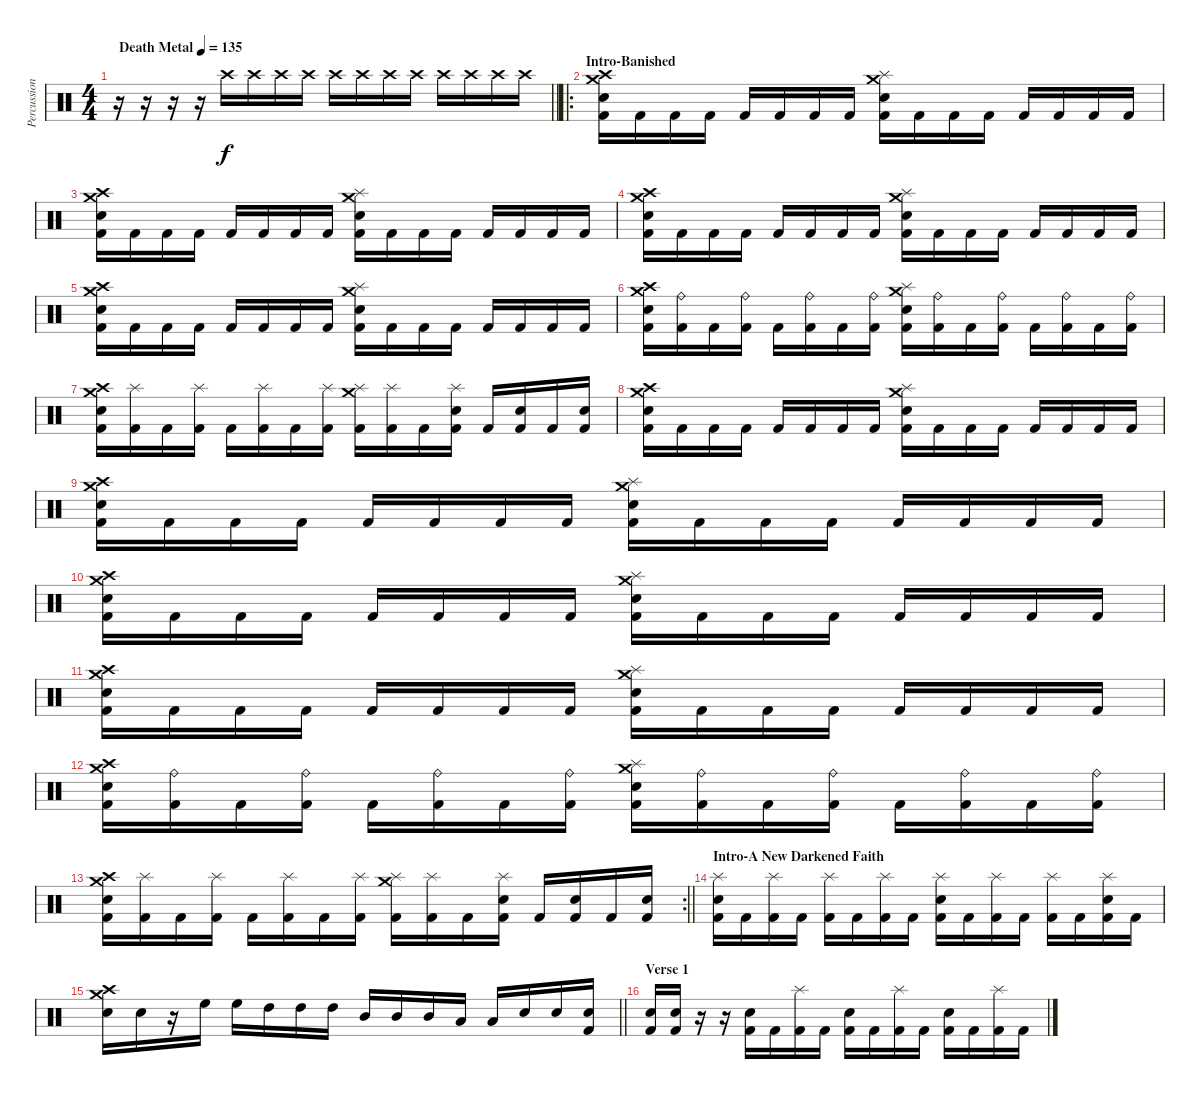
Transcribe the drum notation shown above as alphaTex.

\track ("Percussion" "Percussion") {instrument percussion}
\staff {score}
\articulation defaults
\ts (4 4)
\tempo (135 "Death Metal")
\clef neutral
\barLineRight lightlight
\ks c
r.16{dy f} r.16 r.16 r.16 "Crash high (hit)".16 "Crash high (hit)".16 "Crash high (hit)".16 "Crash high (hit)".16 "Crash high (hit)".16 "Crash high (hit)".16 "Crash high (hit)".16 "Crash high (hit)".16 "Crash high (hit)".16 "Crash high (hit)".16 "Crash high (hit)".16 "Crash high (hit)".16 |
\ro
\section ("" "Intro-Banished")
("Crash high (hit)" "Crash medium (hit)" "Electric Snare (hit)" "Kick (hit) 2").16 "Kick (hit) 2".16 "Kick (hit) 2".16 "Kick (hit) 2".16 "Kick (hit) 2".16 "Kick (hit) 2".16 "Kick (hit) 2".16 "Kick (hit) 2".16 ("Crash medium (hit)" "Splash (hit)" "Electric Snare (hit)" "Kick (hit) 2").16 "Kick (hit) 2".16 "Kick (hit) 2".16 "Kick (hit) 2".16 "Kick (hit) 2".16 "Kick (hit) 2".16 "Kick (hit) 2".16 "Kick (hit) 2".16 |
("Crash high (hit)" "Crash medium (hit)" "Electric Snare (hit)" "Kick (hit) 2").16 "Kick (hit) 2".16 "Kick (hit) 2".16 "Kick (hit) 2".16 "Kick (hit) 2".16 "Kick (hit) 2".16 "Kick (hit) 2".16 "Kick (hit) 2".16 ("Crash medium (hit)" "Splash (hit)" "Electric Snare (hit)" "Kick (hit) 2").16 "Kick (hit) 2".16 "Kick (hit) 2".16 "Kick (hit) 2".16 "Kick (hit) 2".16 "Kick (hit) 2".16 "Kick (hit) 2".16 "Kick (hit) 2".16 |
("Crash high (hit)" "Crash medium (hit)" "Electric Snare (hit)" "Kick (hit) 2").16 "Kick (hit) 2".16 "Kick (hit) 2".16 "Kick (hit) 2".16 "Kick (hit) 2".16 "Kick (hit) 2".16 "Kick (hit) 2".16 "Kick (hit) 2".16 ("Crash medium (hit)" "Splash (hit)" "Electric Snare (hit)" "Kick (hit) 2").16 "Kick (hit) 2".16 "Kick (hit) 2".16 "Kick (hit) 2".16 "Kick (hit) 2".16 "Kick (hit) 2".16 "Kick (hit) 2".16 "Kick (hit) 2".16 |
("Crash high (hit)" "Crash medium (hit)" "Electric Snare (hit)" "Kick (hit) 2").16 "Kick (hit) 2".16 "Kick (hit) 2".16 "Kick (hit) 2".16 "Kick (hit) 2".16 "Kick (hit) 2".16 "Kick (hit) 2".16 "Kick (hit) 2".16 ("Crash medium (hit)" "Splash (hit)" "Electric Snare (hit)" "Kick (hit) 2").16 "Kick (hit) 2".16 "Kick (hit) 2".16 "Kick (hit) 2".16 "Kick (hit) 2".16 "Kick (hit) 2".16 "Kick (hit) 2".16 "Kick (hit) 2".16 |
("Crash high (hit)" "Crash medium (hit)" "Electric Snare (hit)" "Kick (hit) 2").16 ("Ride (bell)" "Kick (hit) 2").16 "Kick (hit) 2".16 ("Ride (bell)" "Kick (hit) 2").16 "Kick (hit) 2".16 ("Ride (bell)" "Kick (hit) 2").16 "Kick (hit) 2".16 ("Ride (bell)" "Kick (hit) 2").16 ("Crash medium (hit)" "Splash (hit)" "Electric Snare (hit)" "Kick (hit) 2").16 ("Ride (bell)" "Kick (hit) 2").16 "Kick (hit) 2".16 ("Ride (bell)" "Kick (hit) 2").16 "Kick (hit) 2".16 ("Ride (bell)" "Kick (hit) 2").16 "Kick (hit) 2".16 ("Ride (bell)" "Kick (hit) 2").16 |
("Crash high (hit)" "Crash medium (hit)" "Electric Snare (hit)" "Kick (hit) 2").16 ("Splash (hit)" "Kick (hit) 2").16 "Kick (hit) 2".16 ("Splash (hit)" "Kick (hit) 2").16 "Kick (hit) 2".16 ("Splash (hit)" "Kick (hit) 2").16 "Kick (hit) 2".16 ("Splash (hit)" "Kick (hit) 2").16 ("Crash medium (hit)" "Splash (hit)" "Kick (hit) 2").16 ("Splash (hit)" "Kick (hit) 2").16 "Kick (hit) 2".16 ("Splash (hit)" "Electric Snare (hit)" "Kick (hit) 2").16 "Kick (hit) 2".16 ("Electric Snare (hit)" "Kick (hit) 2").16 "Kick (hit) 2".16 ("Electric Snare (hit)" "Kick (hit) 2").16 |
("Crash high (hit)" "Crash medium (hit)" "Electric Snare (hit)" "Kick (hit) 2").16 "Kick (hit) 2".16 "Kick (hit) 2".16 "Kick (hit) 2".16 "Kick (hit) 2".16 "Kick (hit) 2".16 "Kick (hit) 2".16 "Kick (hit) 2".16 ("Crash medium (hit)" "Splash (hit)" "Electric Snare (hit)" "Kick (hit) 2").16 "Kick (hit) 2".16 "Kick (hit) 2".16 "Kick (hit) 2".16 "Kick (hit) 2".16 "Kick (hit) 2".16 "Kick (hit) 2".16 "Kick (hit) 2".16 |
("Crash high (hit)" "Crash medium (hit)" "Electric Snare (hit)" "Kick (hit) 2").16 "Kick (hit) 2".16 "Kick (hit) 2".16 "Kick (hit) 2".16 "Kick (hit) 2".16 "Kick (hit) 2".16 "Kick (hit) 2".16 "Kick (hit) 2".16 ("Crash medium (hit)" "Splash (hit)" "Electric Snare (hit)" "Kick (hit) 2").16 "Kick (hit) 2".16 "Kick (hit) 2".16 "Kick (hit) 2".16 "Kick (hit) 2".16 "Kick (hit) 2".16 "Kick (hit) 2".16 "Kick (hit) 2".16 |
("Crash high (hit)" "Crash medium (hit)" "Electric Snare (hit)" "Kick (hit) 2").16 "Kick (hit) 2".16 "Kick (hit) 2".16 "Kick (hit) 2".16 "Kick (hit) 2".16 "Kick (hit) 2".16 "Kick (hit) 2".16 "Kick (hit) 2".16 ("Crash medium (hit)" "Splash (hit)" "Electric Snare (hit)" "Kick (hit) 2").16 "Kick (hit) 2".16 "Kick (hit) 2".16 "Kick (hit) 2".16 "Kick (hit) 2".16 "Kick (hit) 2".16 "Kick (hit) 2".16 "Kick (hit) 2".16 |
("Crash high (hit)" "Crash medium (hit)" "Electric Snare (hit)" "Kick (hit) 2").16 "Kick (hit) 2".16 "Kick (hit) 2".16 "Kick (hit) 2".16 "Kick (hit) 2".16 "Kick (hit) 2".16 "Kick (hit) 2".16 "Kick (hit) 2".16 ("Crash medium (hit)" "Splash (hit)" "Electric Snare (hit)" "Kick (hit) 2").16 "Kick (hit) 2".16 "Kick (hit) 2".16 "Kick (hit) 2".16 "Kick (hit) 2".16 "Kick (hit) 2".16 "Kick (hit) 2".16 "Kick (hit) 2".16 |
("Crash high (hit)" "Crash medium (hit)" "Electric Snare (hit)" "Kick (hit) 2").16 ("Ride (bell)" "Kick (hit) 2").16 "Kick (hit) 2".16 ("Ride (bell)" "Kick (hit) 2").16 "Kick (hit) 2".16 ("Ride (bell)" "Kick (hit) 2").16 "Kick (hit) 2".16 ("Ride (bell)" "Kick (hit) 2").16 ("Crash medium (hit)" "Splash (hit)" "Electric Snare (hit)" "Kick (hit) 2").16 ("Ride (bell)" "Kick (hit) 2").16 "Kick (hit) 2".16 ("Ride (bell)" "Kick (hit) 2").16 "Kick (hit) 2".16 ("Ride (bell)" "Kick (hit) 2").16 "Kick (hit) 2".16 ("Ride (bell)" "Kick (hit) 2").16 |
\rc 2
\barLineRight lightlight
("Crash high (hit)" "Crash medium (hit)" "Electric Snare (hit)" "Kick (hit) 2").16 ("Splash (hit)" "Kick (hit) 2").16 "Kick (hit) 2".16 ("Splash (hit)" "Kick (hit) 2").16 "Kick (hit) 2".16 ("Splash (hit)" "Kick (hit) 2").16 "Kick (hit) 2".16 ("Splash (hit)" "Kick (hit) 2").16 ("Crash medium (hit)" "Splash (hit)" "Kick (hit) 2").16 ("Splash (hit)" "Kick (hit) 2").16 "Kick (hit) 2".16 ("Splash (hit)" "Electric Snare (hit)" "Kick (hit) 2").16 "Kick (hit) 2".16 ("Electric Snare (hit)" "Kick (hit) 2").16 "Kick (hit) 2".16 ("Electric Snare (hit)" "Kick (hit) 2").16 |
\section ("" "Intro-A New Darkened Faith")
("Splash (hit)" "Electric Snare (hit)" "Kick (hit) 2").16 "Kick (hit) 2".16 ("Splash (hit)" "Kick (hit) 2").16 "Kick (hit) 2".16 ("Splash (hit)" "Kick (hit) 2").16 "Kick (hit) 2".16 ("Splash (hit)" "Kick (hit) 2").16 "Kick (hit) 2".16 ("Splash (hit)" "Electric Snare (hit)" "Kick (hit) 2").16 "Kick (hit) 2".16 ("Splash (hit)" "Kick (hit) 2").16 "Kick (hit) 2".16 ("Splash (hit)" "Kick (hit) 2").16 "Kick (hit) 2".16 ("Splash (hit)" "Electric Snare (hit)" "Kick (hit) 2").16 "Kick (hit) 2".16 |
\barLineRight lightlight
("Crash high (hit)" "Crash medium (hit)" "Electric Snare (hit)").16 "Electric Snare (hit)".16 r.16 "High Floor Tom (hit)".16 "High Floor Tom (hit)".16 "High Tom (hit)".16 "High Tom (hit)".16 "High Tom (hit)".16 "Mid Tom (hit)".16 "Mid Tom (hit)".16 "Mid Tom (hit)".16 "Low Tom (hit)".16 "Low Tom (hit)".16 "Electric Snare (hit)".16 "Electric Snare (hit)".16 ("Electric Snare (hit)" "Kick (hit) 2").16 |
\section ("" "Verse 1")
("Electric Snare (hit)" "Kick (hit) 2").16 ("Electric Snare (hit)" "Kick (hit) 2").16 r.16 r.16 ("Electric Snare (hit)" "Kick (hit) 2").16 "Kick (hit) 2".16 ("Splash (hit)" "Kick (hit) 2").16 "Kick (hit) 2".16 ("Electric Snare (hit)" "Kick (hit) 2").16 "Kick (hit) 2".16 ("Splash (hit)" "Kick (hit) 2").16 "Kick (hit) 2".16 ("Electric Snare (hit)" "Kick (hit) 2").16 "Kick (hit) 2".16 ("Splash (hit)" "Kick (hit) 2").16 "Kick (hit) 2".16
